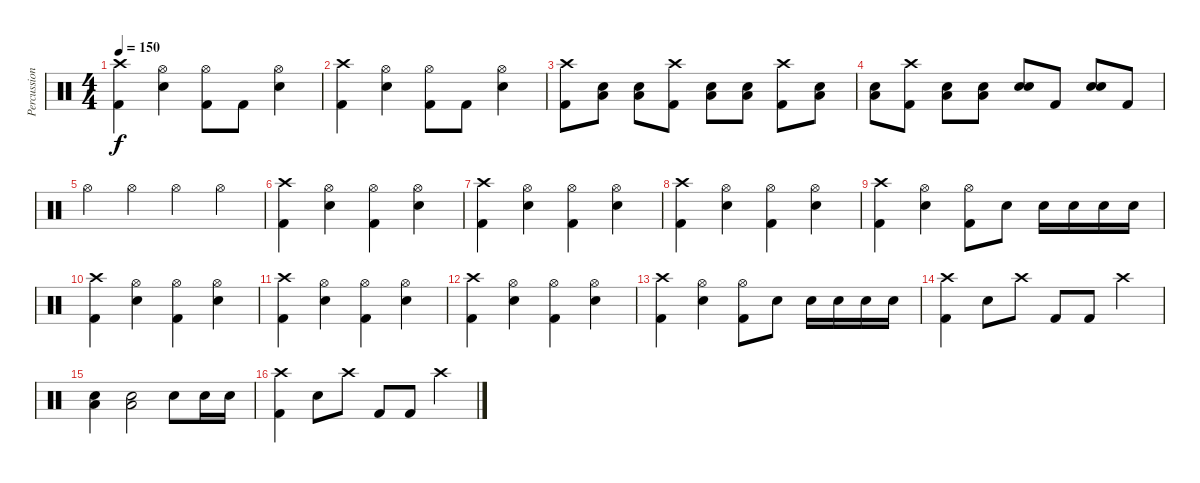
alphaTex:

\track ("Percussion" "Percussion") {instrument percussion}
\staff {score}
\articulation defaults
\ts (4 4)
\tempo 150
\clef neutral
\ks c
("Crash high (hit)" "Kick (hit) 2").4{dy f} ("Hi-Hat (open)" "Snare (hit) 2").4 ("Hi-Hat (open)" "Kick (hit) 2").8 "Kick (hit) 2".8 ("Hi-Hat (open)" "Snare (hit) 2").4 |
("Crash high (hit)" "Kick (hit) 2").4 ("Hi-Hat (open)" "Snare (hit) 2").4 ("Hi-Hat (open)" "Kick (hit) 2").8 "Kick (hit) 2".8 ("Hi-Hat (open)" "Snare (hit) 2").4 |
("Crash high (hit)" "Kick (hit) 2").8 ("Low Floor Tom (hit)" "Snare (hit) 2").8 ("Low Floor Tom (hit)" "Snare (hit) 2").8 ("Crash high (hit)" "Kick (hit) 2").8 ("Low Floor Tom (hit)" "Snare (hit) 2").8 ("Low Floor Tom (hit)" "Snare (hit) 2").8 ("Crash high (hit)" "Kick (hit) 2").8 ("Low Floor Tom (hit)" "Snare (hit) 2").8 |
("Low Floor Tom (hit)" "Snare (hit) 2").8 ("Crash high (hit)" "Kick (hit) 2").8 ("Low Floor Tom (hit)" "Snare (hit) 2").8 ("Low Floor Tom (hit)" "Snare (hit) 2").8 ("Snare (hit) 2" "Snare (hit) 2").8 "Kick (hit) 2".8 ("Snare (hit) 2" "Snare (hit) 2").8 "Kick (hit) 2".8 |
"Hi-Hat (open)".4 "Hi-Hat (open)".4 "Hi-Hat (open)".4 "Hi-Hat (open)".4 |
("Crash high (hit)" "Kick (hit) 2").4 ("Hi-Hat (open)" "Snare (hit) 2").4 ("Hi-Hat (open)" "Kick (hit) 2").4 ("Hi-Hat (open)" "Snare (hit) 2").4 |
("Crash high (hit)" "Kick (hit) 2").4 ("Hi-Hat (open)" "Snare (hit) 2").4 ("Hi-Hat (open)" "Kick (hit) 2").4 ("Hi-Hat (open)" "Snare (hit) 2").4 |
("Crash high (hit)" "Kick (hit) 2").4 ("Hi-Hat (open)" "Snare (hit) 2").4 ("Hi-Hat (open)" "Kick (hit) 2").4 ("Hi-Hat (open)" "Snare (hit) 2").4 |
("Crash high (hit)" "Kick (hit) 2").4 ("Hi-Hat (open)" "Snare (hit) 2").4 ("Hi-Hat (open)" "Kick (hit) 2").8 "Snare (hit) 2".8 "Snare (hit) 2".16 "Snare (hit) 2".16 "Snare (hit) 2".16 "Snare (hit) 2".16 |
("Crash high (hit)" "Kick (hit) 2").4 ("Hi-Hat (open)" "Snare (hit) 2").4 ("Hi-Hat (open)" "Kick (hit) 2").4 ("Hi-Hat (open)" "Snare (hit) 2").4 |
("Crash high (hit)" "Kick (hit) 2").4 ("Hi-Hat (open)" "Snare (hit) 2").4 ("Hi-Hat (open)" "Kick (hit) 2").4 ("Hi-Hat (open)" "Snare (hit) 2").4 |
("Crash high (hit)" "Kick (hit) 2").4 ("Hi-Hat (open)" "Snare (hit) 2").4 ("Hi-Hat (open)" "Kick (hit) 2").4 ("Hi-Hat (open)" "Snare (hit) 2").4 |
("Crash high (hit)" "Kick (hit) 2").4 ("Hi-Hat (open)" "Snare (hit) 2").4 ("Hi-Hat (open)" "Kick (hit) 2").8 "Snare (hit) 2".8 "Snare (hit) 2".16 "Snare (hit) 2".16 "Snare (hit) 2".16 "Snare (hit) 2".16 |
("Crash high (hit)" "Kick (hit) 2").4 "Snare (hit) 2".8 "Crash high (hit)".8 "Kick (hit) 2".8 "Kick (hit) 2".8 "Crash high (hit)".4 |
("Low Floor Tom (hit)" "Snare (hit) 2").4 ("Low Floor Tom (hit)" "Snare (hit) 2").2 "Snare (hit) 2".8 "Snare (hit) 2".16 "Snare (hit) 2".16 |
("Crash high (hit)" "Kick (hit) 2").4 "Snare (hit) 2".8 "Crash high (hit)".8 "Kick (hit) 2".8 "Kick (hit) 2".8 "Crash high (hit)".4
